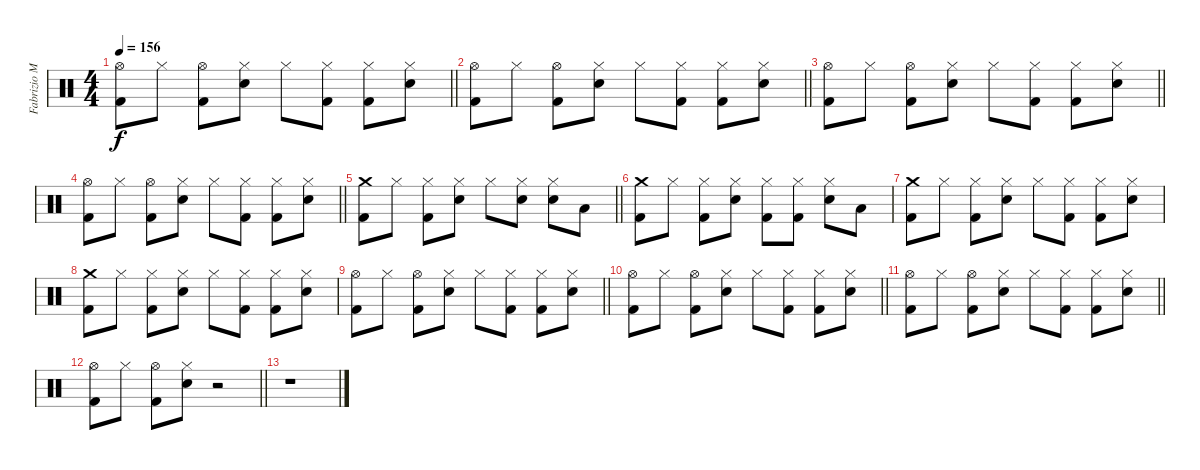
\track ("Fabrizio Moretti (Drums)" "Fabrizio M") {instrument percussion}
\staff {score}
\articulation defaults
\ts (4 4)
\tempo 156
\clef neutral
\barLineRight lightlight
\ks c
("Hi-Hat (open)" "Kick (hit) 2").8{dy f} "Hi-Hat (closed)".8 ("Hi-Hat (open)" "Kick (hit) 2").8 ("Hi-Hat (closed)" "Snare (hit) 2").8 "Hi-Hat (closed)".8 ("Hi-Hat (closed)" "Kick (hit) 2").8 ("Hi-Hat (closed)" "Kick (hit) 2").8 ("Hi-Hat (closed)" "Snare (hit) 2").8 |
\barLineRight lightlight
("Hi-Hat (open)" "Kick (hit) 2").8 "Hi-Hat (closed)".8 ("Hi-Hat (open)" "Kick (hit) 2").8 ("Hi-Hat (closed)" "Snare (hit) 2").8 "Hi-Hat (closed)".8 ("Hi-Hat (closed)" "Kick (hit) 2").8 ("Hi-Hat (closed)" "Kick (hit) 2").8 ("Hi-Hat (closed)" "Snare (hit) 2").8 |
\barLineRight lightlight
("Hi-Hat (open)" "Kick (hit) 2").8 "Hi-Hat (closed)".8 ("Hi-Hat (open)" "Kick (hit) 2").8 ("Hi-Hat (closed)" "Snare (hit) 2").8 "Hi-Hat (closed)".8 ("Hi-Hat (closed)" "Kick (hit) 2").8 ("Hi-Hat (closed)" "Kick (hit) 2").8 ("Hi-Hat (closed)" "Snare (hit) 2").8 |
\barLineRight lightlight
("Hi-Hat (open)" "Kick (hit) 2").8 "Hi-Hat (closed)".8 ("Hi-Hat (open)" "Kick (hit) 2").8 ("Hi-Hat (closed)" "Snare (hit) 2").8 "Hi-Hat (closed)".8 ("Hi-Hat (closed)" "Kick (hit) 2").8 ("Hi-Hat (closed)" "Kick (hit) 2").8 ("Hi-Hat (closed)" "Snare (hit) 2").8 |
\barLineRight lightlight
("Crash medium (hit)" "Kick (hit) 2").8 "Hi-Hat (closed)".8 ("Hi-Hat (closed)" "Kick (hit) 2").8 ("Hi-Hat (closed)" "Snare (hit) 2").8 "Hi-Hat (closed)".8 ("Hi-Hat (closed)" "Snare (hit) 2").8 ("Hi-Hat (closed)" "Snare (hit) 2").8 "Low Tom (hit)".8 |
("Crash medium (hit)" "Kick (hit) 2").8 "Hi-Hat (closed)".8 ("Hi-Hat (closed)" "Kick (hit) 2").8 ("Hi-Hat (closed)" "Snare (hit) 2").8 ("Hi-Hat (closed)" "Kick (hit) 2").8 ("Hi-Hat (closed)" "Kick (hit) 2").8 ("Hi-Hat (closed)" "Snare (hit) 2").8 "Low Tom (hit)".8 |
("Crash medium (hit)" "Kick (hit) 2").8 "Hi-Hat (closed)".8 ("Hi-Hat (closed)" "Kick (hit) 2").8 ("Hi-Hat (closed)" "Snare (hit) 2").8 "Hi-Hat (closed)".8 ("Hi-Hat (closed)" "Kick (hit) 2").8 ("Hi-Hat (closed)" "Kick (hit) 2").8 ("Hi-Hat (closed)" "Snare (hit) 2").8 |
("Crash medium (hit)" "Kick (hit) 2").8 "Hi-Hat (closed)".8 ("Hi-Hat (closed)" "Kick (hit) 2").8 ("Hi-Hat (closed)" "Snare (hit) 2").8 "Hi-Hat (closed)".8 ("Hi-Hat (closed)" "Kick (hit) 2").8 ("Hi-Hat (closed)" "Kick (hit) 2").8 ("Hi-Hat (closed)" "Snare (hit) 2").8 |
\barLineRight lightlight
("Hi-Hat (open)" "Kick (hit) 2").8 "Hi-Hat (closed)".8 ("Hi-Hat (open)" "Kick (hit) 2").8 ("Hi-Hat (closed)" "Snare (hit) 2").8 "Hi-Hat (closed)".8 ("Hi-Hat (closed)" "Kick (hit) 2").8 ("Hi-Hat (closed)" "Kick (hit) 2").8 ("Hi-Hat (closed)" "Snare (hit) 2").8 |
\barLineRight lightlight
("Hi-Hat (open)" "Kick (hit) 2").8 "Hi-Hat (closed)".8 ("Hi-Hat (open)" "Kick (hit) 2").8 ("Hi-Hat (closed)" "Snare (hit) 2").8 "Hi-Hat (closed)".8 ("Hi-Hat (closed)" "Kick (hit) 2").8 ("Hi-Hat (closed)" "Kick (hit) 2").8 ("Hi-Hat (closed)" "Snare (hit) 2").8 |
\barLineRight lightlight
("Hi-Hat (open)" "Kick (hit) 2").8 "Hi-Hat (closed)".8 ("Hi-Hat (open)" "Kick (hit) 2").8 ("Hi-Hat (closed)" "Snare (hit) 2").8 "Hi-Hat (closed)".8 ("Hi-Hat (closed)" "Kick (hit) 2").8 ("Hi-Hat (closed)" "Kick (hit) 2").8 ("Hi-Hat (closed)" "Snare (hit) 2").8 |
\barLineRight lightlight
("Hi-Hat (open)" "Kick (hit) 2").8 "Hi-Hat (closed)".8 ("Hi-Hat (open)" "Kick (hit) 2").8 ("Hi-Hat (closed)" "Snare (hit) 2").8 r.2 |
r.1
